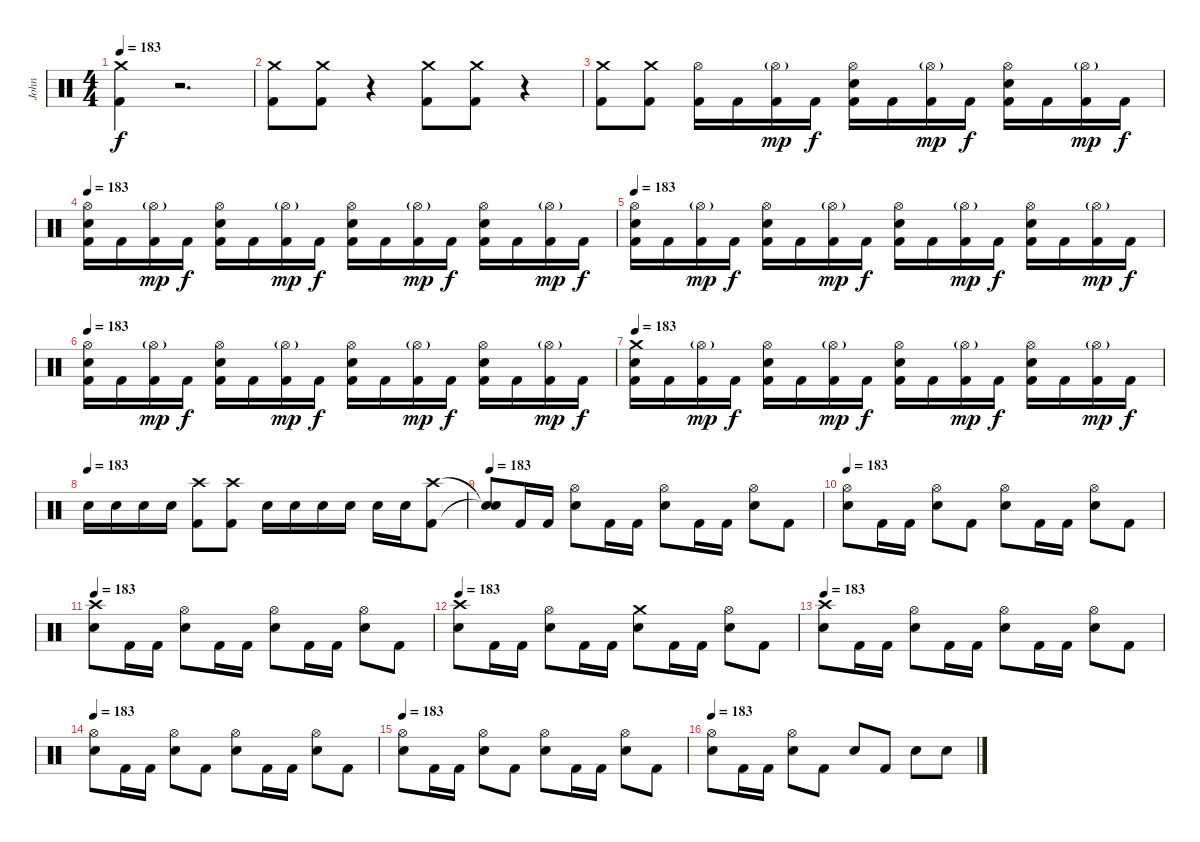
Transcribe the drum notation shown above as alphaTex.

\track ("John " "John ") {instrument percussion}
\staff {score}
\articulation defaults
\ts (4 4)
\tempo 183
\clef neutral
\ks c
("Crash medium (hit)" "Kick (hit) 2").4{dy f} r.2{d volume 0} |
("Crash medium (hit)" "Kick (hit) 2").8{volume 16} ("Crash medium (hit)" "Kick (hit) 2").8 r.4 ("Crash medium (hit)" "Kick (hit) 2").8 ("Crash medium (hit)" "Kick (hit) 2").8 r.4 |
("Crash medium (hit)" "Kick (hit) 2").8 ("Crash medium (hit)" "Kick (hit) 2").8 ("Hi-Hat (open)" "Kick (hit) 2").16 "Kick (hit) 2".16 ("Hi-Hat (open)"{g} "Kick (hit) 2").16{dy mp} "Kick (hit) 2".16{dy f} ("Hi-Hat (open)" "Snare (hit) 2" "Kick (hit) 2").16 "Kick (hit) 2".16 ("Hi-Hat (open)"{g} "Kick (hit) 2").16{dy mp} "Kick (hit) 2".16{dy f} ("Hi-Hat (open)" "Snare (hit) 2" "Kick (hit) 2").16 "Kick (hit) 2".16 ("Hi-Hat (open)"{g} "Kick (hit) 2").16{dy mp} "Kick (hit) 2".16{dy f} |
\tempo 183
("Hi-Hat (open)" "Kick (hit) 2" "Snare (hit) 2").16 "Kick (hit) 2".16 ("Hi-Hat (open)"{g} "Kick (hit) 2").16{dy mp} "Kick (hit) 2".16{dy f} ("Hi-Hat (open)" "Snare (hit) 2" "Kick (hit) 2").16 "Kick (hit) 2".16 ("Hi-Hat (open)"{g} "Kick (hit) 2").16{dy mp} "Kick (hit) 2".16{dy f} ("Hi-Hat (open)" "Snare (hit) 2" "Kick (hit) 2").16 "Kick (hit) 2".16 ("Hi-Hat (open)"{g} "Kick (hit) 2").16{dy mp} "Kick (hit) 2".16{dy f} ("Hi-Hat (open)" "Snare (hit) 2" "Kick (hit) 2").16 "Kick (hit) 2".16 ("Hi-Hat (open)"{g} "Kick (hit) 2").16{dy mp} "Kick (hit) 2".16{dy f} |
\tempo 183
("Hi-Hat (open)" "Snare (hit) 2" "Kick (hit) 2").16 "Kick (hit) 2".16 ("Hi-Hat (open)"{g} "Kick (hit) 2").16{dy mp} "Kick (hit) 2".16{dy f} ("Hi-Hat (open)" "Snare (hit) 2" "Kick (hit) 2").16 "Kick (hit) 2".16 ("Hi-Hat (open)"{g} "Kick (hit) 2").16{dy mp} "Kick (hit) 2".16{dy f} ("Hi-Hat (open)" "Snare (hit) 2" "Kick (hit) 2").16 "Kick (hit) 2".16 ("Hi-Hat (open)"{g} "Kick (hit) 2").16{dy mp} "Kick (hit) 2".16{dy f} ("Hi-Hat (open)" "Snare (hit) 2" "Kick (hit) 2").16 "Kick (hit) 2".16 ("Hi-Hat (open)"{g} "Kick (hit) 2").16{dy mp} "Kick (hit) 2".16{dy f} |
\tempo 183
("Hi-Hat (open)" "Snare (hit) 2" "Kick (hit) 2").16 "Kick (hit) 2".16 ("Hi-Hat (open)"{g} "Kick (hit) 2").16{dy mp} "Kick (hit) 2".16{dy f} ("Hi-Hat (open)" "Snare (hit) 2" "Kick (hit) 2").16 "Kick (hit) 2".16 ("Hi-Hat (open)"{g} "Kick (hit) 2").16{dy mp} "Kick (hit) 2".16{dy f} ("Hi-Hat (open)" "Snare (hit) 2" "Kick (hit) 2").16 "Kick (hit) 2".16 ("Hi-Hat (open)"{g} "Kick (hit) 2").16{dy mp} "Kick (hit) 2".16{dy f} ("Hi-Hat (open)" "Snare (hit) 2" "Kick (hit) 2").16 "Kick (hit) 2".16 ("Hi-Hat (open)"{g} "Kick (hit) 2").16{dy mp} "Kick (hit) 2".16{dy f} |
\tempo 183
("Crash medium (hit)" "Snare (hit) 2" "Kick (hit) 2").16 "Kick (hit) 2".16 ("Hi-Hat (open)"{g} "Kick (hit) 2").16{dy mp} "Kick (hit) 2".16{dy f} ("Hi-Hat (open)" "Snare (hit) 2" "Kick (hit) 2").16 "Kick (hit) 2".16 ("Hi-Hat (open)"{g} "Kick (hit) 2").16{dy mp} "Kick (hit) 2".16{dy f} ("Hi-Hat (open)" "Snare (hit) 2" "Kick (hit) 2").16 "Kick (hit) 2".16 ("Hi-Hat (open)"{g} "Kick (hit) 2").16{dy mp} "Kick (hit) 2".16{dy f} ("Hi-Hat (open)" "Snare (hit) 2" "Kick (hit) 2").16 "Kick (hit) 2".16 ("Hi-Hat (open)"{g} "Kick (hit) 2").16{dy mp} "Kick (hit) 2".16{dy f} |
\tempo (183)
"Snare (hit) 2".16 "Snare (hit) 2".16 "Snare (hit) 2".16 "Snare (hit) 2".16 ("Crash high (hit)" "Kick (hit) 2").8 ("Crash high (hit)" "Kick (hit) 2").8 "Snare (hit) 2".16 "Snare (hit) 2".16 "Snare (hit) 2".16 "Snare (hit) 2".16 "Snare (hit) 2".16 "Snare (hit) 2".16 ("Crash high (hit)" "Kick (hit) 2").8 |
\tempo 183
("Snare (hit)"{t} "Snare (hit)"{t}).8 "Kick (hit) 2".16 "Kick (hit) 2".16 ("Hi-Hat (open)" "Snare (hit) 2").8 "Kick (hit) 2".16 "Kick (hit) 2".16 ("Hi-Hat (open)" "Snare (hit) 2").8 "Kick (hit) 2".16 "Kick (hit) 2".16 ("Hi-Hat (open)" "Snare (hit) 2").8 "Kick (hit) 2".8 |
\tempo 183
("Hi-Hat (open)" "Snare (hit) 2").8 "Kick (hit) 2".16 "Kick (hit) 2".16 ("Hi-Hat (open)" "Snare (hit) 2").8 "Kick (hit) 2".8 ("Hi-Hat (open)" "Snare (hit) 2").8 "Kick (hit) 2".16 "Kick (hit) 2".16 ("Hi-Hat (open)" "Snare (hit) 2").8 "Kick (hit) 2".8 |
\tempo 183
("Crash high (hit)" "Snare (hit) 2").8 "Kick (hit) 2".16 "Kick (hit) 2".16 ("Hi-Hat (open)" "Snare (hit) 2").8 "Kick (hit) 2".16 "Kick (hit) 2".16 ("Hi-Hat (open)" "Snare (hit) 2").8 "Kick (hit) 2".16 "Kick (hit) 2".16 ("Hi-Hat (open)" "Snare (hit) 2").8 "Kick (hit) 2".8 |
\tempo 183
("Crash high (hit)" "Snare (hit) 2").8 "Kick (hit) 2".16 "Kick (hit) 2".16 ("Hi-Hat (open)" "Snare (hit) 2").8 "Kick (hit) 2".16 "Kick (hit) 2".16 ("Crash medium (hit)" "Snare (hit) 2").8 "Kick (hit) 2".16 "Kick (hit) 2".16 ("Hi-Hat (open)" "Snare (hit) 2").8 "Kick (hit) 2".8 |
\tempo 183
("Crash high (hit)" "Snare (hit) 2").8 "Kick (hit) 2".16 "Kick (hit) 2".16 ("Hi-Hat (open)" "Snare (hit) 2").8 "Kick (hit) 2".16 "Kick (hit) 2".16 ("Hi-Hat (open)" "Snare (hit) 2").8 "Kick (hit) 2".16 "Kick (hit) 2".16 ("Hi-Hat (open)" "Snare (hit) 2").8 "Kick (hit) 2".8 |
\tempo 183
("Hi-Hat (open)" "Snare (hit) 2").8 "Kick (hit) 2".16 "Kick (hit) 2".16 ("Hi-Hat (open)" "Snare (hit) 2").8 "Kick (hit) 2".8 ("Hi-Hat (open)" "Snare (hit) 2").8 "Kick (hit) 2".16 "Kick (hit) 2".16 ("Hi-Hat (open)" "Snare (hit) 2").8 "Kick (hit) 2".8 |
\tempo 183
("Hi-Hat (open)" "Snare (hit) 2").8 "Kick (hit) 2".16 "Kick (hit) 2".16 ("Hi-Hat (open)" "Snare (hit) 2").8 "Kick (hit) 2".8 ("Hi-Hat (open)" "Snare (hit) 2").8 "Kick (hit) 2".16 "Kick (hit) 2".16 ("Hi-Hat (open)" "Snare (hit) 2").8 "Kick (hit) 2".8 |
\tempo 183
("Hi-Hat (open)" "Snare (hit) 2").8 "Kick (hit) 2".16 "Kick (hit) 2".16 ("Hi-Hat (open)" "Snare (hit) 2").8 "Kick (hit) 2".8 "Snare (hit) 2".8 "Kick (hit) 2".8 "Snare (hit) 2".8 "Snare (hit) 2".8
